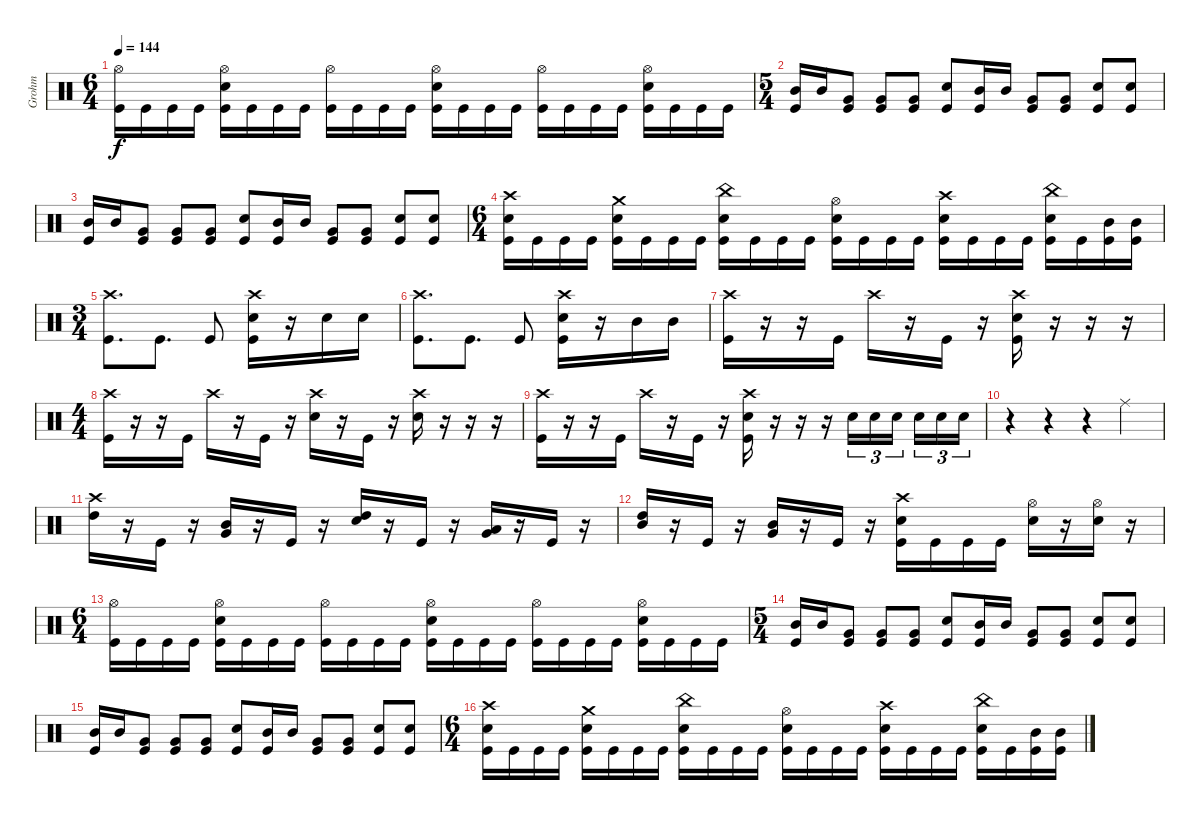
\track ("Grohm" "Grohm") {instrument percussion}
\staff {score}
\articulation defaults
\ts (6 4)
\tempo 144
\clef neutral
\ks c
("Hi-Hat (open)" "Kick (hit)").16{dy f} "Kick (hit)".16 "Kick (hit)".16 "Kick (hit)".16 ("Hi-Hat (open)" "Snare (hit) 2" "Kick (hit)").16 "Kick (hit)".16 "Kick (hit)".16 "Kick (hit)".16 ("Hi-Hat (open)" "Kick (hit)").16 "Kick (hit)".16 "Kick (hit)".16 "Kick (hit)".16 ("Hi-Hat (open)" "Snare (hit) 2" "Kick (hit)").16 "Kick (hit)".16 "Kick (hit)".16 "Kick (hit)".16 ("Hi-Hat (open)" "Kick (hit)").16 "Kick (hit)".16 "Kick (hit)".16 "Kick (hit)".16 ("Hi-Hat (open)" "Snare (hit) 2" "Kick (hit)").16 "Kick (hit)".16 "Kick (hit)".16 "Kick (hit)".16 |
\ts (5 4)
("Mid Tom (hit)" "Kick (hit)").16 "Mid Tom (hit)".16 ("Very Low Tom (hit)" "Kick (hit)").8 ("Very Low Tom (hit)" "Kick (hit)").8 ("Very Low Tom (hit)" "Kick (hit)").8 ("Snare (hit) 2" "Kick (hit)").8 ("Mid Tom (hit)" "Kick (hit)").16 "Mid Tom (hit)".16 ("Very Low Tom (hit)" "Kick (hit)").8 ("Very Low Tom (hit)" "Kick (hit)").8 ("Snare (hit) 2" "Kick (hit)").8 ("Snare (hit) 2" "Kick (hit)").8 |
("Mid Tom (hit)" "Kick (hit)").16 "Mid Tom (hit)".16 ("Very Low Tom (hit)" "Kick (hit)").8 ("Very Low Tom (hit)" "Kick (hit)").8 ("Very Low Tom (hit)" "Kick (hit)").8 ("Snare (hit) 2" "Kick (hit)").8 ("Mid Tom (hit)" "Kick (hit)").16 "Mid Tom (hit)".16 ("Very Low Tom (hit)" "Kick (hit)").8 ("Very Low Tom (hit)" "Kick (hit)").8 ("Snare (hit) 2" "Kick (hit)").8 ("Snare (hit) 2" "Kick (hit)").8 |
\ts (6 4)
("Crash high (hit)" "Snare (hit) 2" "Kick (hit)").16 "Kick (hit)".16 "Kick (hit)".16 "Kick (hit)".16 ("Crash medium (hit)" "Snare (hit) 2" "Kick (hit)").16 "Kick (hit)".16 "Kick (hit)".16 "Kick (hit)".16 ("China (hit)" "Snare (hit) 2" "Kick (hit)").16 "Kick (hit)".16 "Kick (hit)".16 "Kick (hit)".16 ("Hi-Hat (open)" "Snare (hit) 2" "Kick (hit)").16 "Kick (hit)".16 "Kick (hit)".16 "Kick (hit)".16 ("Crash high (hit)" "Snare (hit) 2" "Kick (hit)").16 "Kick (hit)".16 "Kick (hit)".16 "Kick (hit)".16 ("China (hit)" "Snare (hit) 2" "Kick (hit)").16 "Kick (hit)".16 ("Mid Tom (hit)" "Kick (hit)").16 ("Mid Tom (hit)" "Kick (hit)").16 |
\ts (3 4)
("Crash high (hit)" "Kick (hit)").8{d} "Kick (hit)".8{d} "Kick (hit)".8 ("Crash high (hit)" "Snare (hit) 2" "Kick (hit)").16 r.16 "Snare (hit) 2".16 "Snare (hit) 2".16 |
("Crash high (hit)" "Kick (hit)").8{d} "Kick (hit)".8{d} "Kick (hit)".8 ("Crash high (hit)" "Snare (hit) 2" "Kick (hit)").16 r.16 "Mid Tom (hit)".16 "Mid Tom (hit)".16 |
("Crash high (hit)" "Kick (hit)").16 r.16 r.16 "Kick (hit)".16 "Crash high (hit)".16 r.16 "Kick (hit)".16 r.16 ("Crash high (hit)" "Snare (hit) 2" "Kick (hit)").16 r.16 r.16 r.16 |
\ts (4 4)
("Crash high (hit)" "Kick (hit)").16 r.16 r.16 "Kick (hit)".16 "Crash high (hit)".16 r.16 "Kick (hit)".16 r.16 ("Crash high (hit)" "Snare (hit) 2").16 r.16 "Kick (hit)".16 r.16 ("Crash high (hit)" "Snare (hit) 2").16 r.16 r.16 r.16 |
("Crash high (hit)" "Kick (hit)").16 r.16 r.16 "Kick (hit)".16 "Crash high (hit)".16 r.16 "Kick (hit)".16 r.16 ("Crash high (hit)" "Snare (hit) 2" "Kick (hit)").16 r.16 r.16 r.16 "Snare (hit) 2".16{tu (3 2)} "Snare (hit) 2".16{tu (3 2)} "Snare (hit) 2".16{tu (3 2) beam splitsecondary} "Snare (hit) 2".16{tu (3 2)} "Snare (hit) 2".16{tu (3 2)} "Snare (hit) 2".16{tu (3 2)} |
r.4 r.4 r.4 "Ride (middle)".4 |
("Crash high (hit)" "High Tom (hit)").16 r.16 "Kick (hit)".16 r.16 ("Very Low Tom (hit)" "Mid Tom (hit)").16 r.16 "Kick (hit)".16 r.16 ("High Tom (hit)" "Snare (hit) 2").16 r.16 "Kick (hit)".16 r.16 ("Low Floor Tom (hit)" "Very Low Tom (hit)").16 r.16 "Kick (hit)".16 r.16 |
("Mid Tom (hit)" "High Tom (hit)").16 r.16 "Kick (hit)".16 r.16 ("Very Low Tom (hit)" "Mid Tom (hit)").16 r.16 "Kick (hit)".16 r.16 ("Crash high (hit)" "Snare (hit) 2" "Kick (hit)").16 "Kick (hit)".16 "Kick (hit)".16 "Kick (hit)".16 ("Hi-Hat (open)" "Snare (hit) 2").16 r.16 ("Hi-Hat (open)" "Snare (hit) 2").16 r.16 |
\ts (6 4)
("Hi-Hat (open)" "Kick (hit)").16 "Kick (hit)".16 "Kick (hit)".16 "Kick (hit)".16 ("Hi-Hat (open)" "Snare (hit) 2" "Kick (hit)").16 "Kick (hit)".16 "Kick (hit)".16 "Kick (hit)".16 ("Hi-Hat (open)" "Kick (hit)").16 "Kick (hit)".16 "Kick (hit)".16 "Kick (hit)".16 ("Hi-Hat (open)" "Snare (hit) 2" "Kick (hit)").16 "Kick (hit)".16 "Kick (hit)".16 "Kick (hit)".16 ("Hi-Hat (open)" "Kick (hit)").16 "Kick (hit)".16 "Kick (hit)".16 "Kick (hit)".16 ("Hi-Hat (open)" "Snare (hit) 2" "Kick (hit)").16 "Kick (hit)".16 "Kick (hit)".16 "Kick (hit)".16 |
\ts (5 4)
("Mid Tom (hit)" "Kick (hit)").16 "Mid Tom (hit)".16 ("Very Low Tom (hit)" "Kick (hit)").8 ("Very Low Tom (hit)" "Kick (hit)").8 ("Very Low Tom (hit)" "Kick (hit)").8 ("Snare (hit) 2" "Kick (hit)").8 ("Mid Tom (hit)" "Kick (hit)").16 "Mid Tom (hit)".16 ("Very Low Tom (hit)" "Kick (hit)").8 ("Very Low Tom (hit)" "Kick (hit)").8 ("Snare (hit) 2" "Kick (hit)").8 ("Snare (hit) 2" "Kick (hit)").8 |
("Mid Tom (hit)" "Kick (hit)").16 "Mid Tom (hit)".16 ("Very Low Tom (hit)" "Kick (hit)").8 ("Very Low Tom (hit)" "Kick (hit)").8 ("Very Low Tom (hit)" "Kick (hit)").8 ("Snare (hit) 2" "Kick (hit)").8 ("Mid Tom (hit)" "Kick (hit)").16 "Mid Tom (hit)".16 ("Very Low Tom (hit)" "Kick (hit)").8 ("Very Low Tom (hit)" "Kick (hit)").8 ("Snare (hit) 2" "Kick (hit)").8 ("Snare (hit) 2" "Kick (hit)").8 |
\ts (6 4)
("Crash high (hit)" "Snare (hit) 2" "Kick (hit)").16 "Kick (hit)".16 "Kick (hit)".16 "Kick (hit)".16 ("Crash medium (hit)" "Snare (hit) 2" "Kick (hit)").16 "Kick (hit)".16 "Kick (hit)".16 "Kick (hit)".16 ("China (hit)" "Snare (hit) 2" "Kick (hit)").16 "Kick (hit)".16 "Kick (hit)".16 "Kick (hit)".16 ("Hi-Hat (open)" "Snare (hit) 2" "Kick (hit)").16 "Kick (hit)".16 "Kick (hit)".16 "Kick (hit)".16 ("Crash high (hit)" "Snare (hit) 2" "Kick (hit)").16 "Kick (hit)".16 "Kick (hit)".16 "Kick (hit)".16 ("China (hit)" "Snare (hit) 2" "Kick (hit)").16 "Kick (hit)".16 ("Mid Tom (hit)" "Kick (hit)").16 ("Mid Tom (hit)" "Kick (hit)").16
